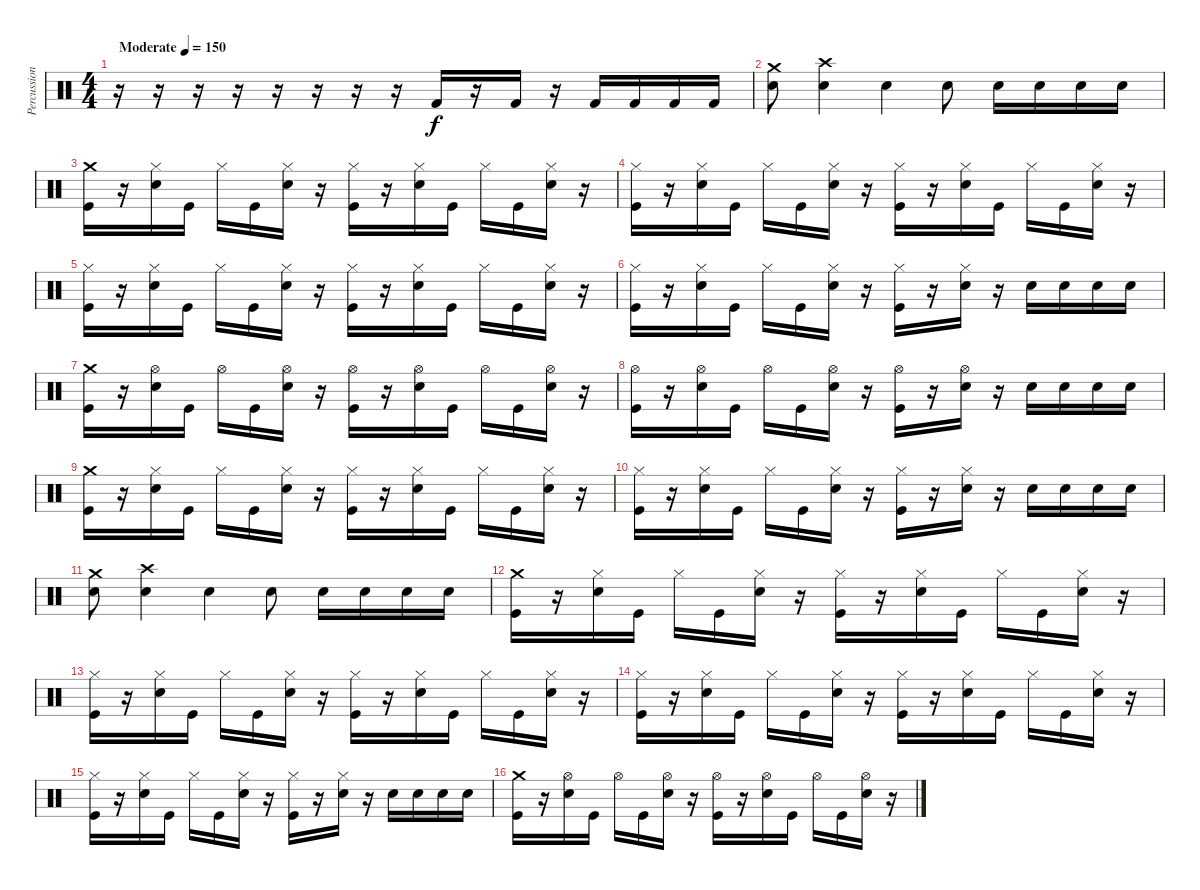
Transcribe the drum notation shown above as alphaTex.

\track ("Percussion" "Percussion") {instrument percussion}
\staff {score}
\articulation defaults
\ts (4 4)
\tempo (150 "Moderate")
\clef neutral
\ks c
r.16{dy f} r.16 r.16 r.16 r.16 r.16 r.16 r.16 "Kick (hit) 2".16 r.16 "Kick (hit) 2".16 r.16 "Kick (hit) 2".16 "Kick (hit) 2".16 "Kick (hit) 2".16 "Kick (hit) 2".16 |
("Crash medium (hit)" "Snare (hit) 2").8 ("Crash high (hit)" "Snare (hit) 2").4 "Snare (hit) 2".4 "Snare (hit) 2".8 "Snare (hit) 2".16 "Snare (hit) 2".16 "Snare (hit) 2".16 "Snare (hit) 2".16 |
("Crash medium (hit)" "Kick (hit)").16 r.16 ("Hi-Hat (closed)" "Snare (hit) 2").16 "Kick (hit)".16 "Hi-Hat (closed)".16 "Kick (hit)".16 ("Hi-Hat (closed)" "Snare (hit) 2").16 r.16 ("Hi-Hat (closed)" "Kick (hit)").16 r.16 ("Hi-Hat (closed)" "Snare (hit) 2").16 "Kick (hit)".16 "Hi-Hat (closed)".16 "Kick (hit)".16 ("Hi-Hat (closed)" "Snare (hit) 2").16 r.16 |
("Hi-Hat (closed)" "Kick (hit)").16 r.16 ("Hi-Hat (closed)" "Snare (hit) 2").16 "Kick (hit)".16 "Hi-Hat (closed)".16 "Kick (hit)".16 ("Hi-Hat (closed)" "Snare (hit) 2").16 r.16 ("Hi-Hat (closed)" "Kick (hit)").16 r.16 ("Hi-Hat (closed)" "Snare (hit) 2").16 "Kick (hit)".16 "Hi-Hat (closed)".16 "Kick (hit)".16 ("Hi-Hat (closed)" "Snare (hit) 2").16 r.16 |
("Hi-Hat (closed)" "Kick (hit)").16 r.16 ("Hi-Hat (closed)" "Snare (hit) 2").16 "Kick (hit)".16 "Hi-Hat (closed)".16 "Kick (hit)".16 ("Hi-Hat (closed)" "Snare (hit) 2").16 r.16 ("Hi-Hat (closed)" "Kick (hit)").16 r.16 ("Hi-Hat (closed)" "Snare (hit) 2").16 "Kick (hit)".16 "Hi-Hat (closed)".16 "Kick (hit)".16 ("Hi-Hat (closed)" "Snare (hit) 2").16 r.16 |
("Hi-Hat (closed)" "Kick (hit)").16 r.16 ("Hi-Hat (closed)" "Snare (hit) 2").16 "Kick (hit)".16 "Hi-Hat (closed)".16 "Kick (hit)".16 ("Hi-Hat (closed)" "Snare (hit) 2").16 r.16 ("Hi-Hat (closed)" "Kick (hit)").16 r.16 ("Hi-Hat (closed)" "Snare (hit) 2").16 r.16 "Snare (hit) 2".16 "Snare (hit) 2".16 "Snare (hit) 2".16 "Snare (hit) 2".16 |
("Crash medium (hit)" "Kick (hit)").16 r.16 ("Hi-Hat (open)" "Snare (hit) 2").16 "Kick (hit)".16 "Hi-Hat (open)".16 "Kick (hit)".16 ("Hi-Hat (open)" "Snare (hit) 2").16 r.16 ("Hi-Hat (open)" "Kick (hit)").16 r.16 ("Hi-Hat (open)" "Snare (hit) 2").16 "Kick (hit)".16 "Hi-Hat (open)".16 "Kick (hit)".16 ("Hi-Hat (open)" "Snare (hit) 2").16 r.16 |
("Hi-Hat (open)" "Kick (hit)").16 r.16 ("Hi-Hat (open)" "Snare (hit) 2").16 "Kick (hit)".16 "Hi-Hat (open)".16 "Kick (hit)".16 ("Hi-Hat (open)" "Snare (hit) 2").16 r.16 ("Hi-Hat (open)" "Kick (hit)").16 r.16 ("Hi-Hat (open)" "Snare (hit) 2").16 r.16 "Snare (hit) 2".16 "Snare (hit) 2".16 "Snare (hit) 2".16 "Snare (hit) 2".16 |
("Crash medium (hit)" "Kick (hit)").16 r.16 ("Hi-Hat (closed)" "Snare (hit) 2").16 "Kick (hit)".16 "Hi-Hat (closed)".16 "Kick (hit)".16 ("Hi-Hat (closed)" "Snare (hit) 2").16 r.16 ("Hi-Hat (closed)" "Kick (hit)").16 r.16 ("Hi-Hat (closed)" "Snare (hit) 2").16 "Kick (hit)".16 "Hi-Hat (closed)".16 "Kick (hit)".16 ("Hi-Hat (closed)" "Snare (hit) 2").16 r.16 |
("Hi-Hat (closed)" "Kick (hit)").16 r.16 ("Hi-Hat (closed)" "Snare (hit) 2").16 "Kick (hit)".16 "Hi-Hat (closed)".16 "Kick (hit)".16 ("Hi-Hat (closed)" "Snare (hit) 2").16 r.16 ("Hi-Hat (closed)" "Kick (hit)").16 r.16 ("Hi-Hat (closed)" "Snare (hit) 2").16 r.16 "Snare (hit) 2".16 "Snare (hit) 2".16 "Snare (hit) 2".16 "Snare (hit) 2".16 |
("Crash medium (hit)" "Snare (hit) 2").8 ("Crash high (hit)" "Snare (hit) 2").4 "Snare (hit) 2".4 "Snare (hit) 2".8 "Snare (hit) 2".16 "Snare (hit) 2".16 "Snare (hit) 2".16 "Snare (hit) 2".16 |
("Crash medium (hit)" "Kick (hit)").16 r.16 ("Hi-Hat (closed)" "Snare (hit) 2").16 "Kick (hit)".16 "Hi-Hat (closed)".16 "Kick (hit)".16 ("Hi-Hat (closed)" "Snare (hit) 2").16 r.16 ("Hi-Hat (closed)" "Kick (hit)").16 r.16 ("Hi-Hat (closed)" "Snare (hit) 2").16 "Kick (hit)".16 "Hi-Hat (closed)".16 "Kick (hit)".16 ("Hi-Hat (closed)" "Snare (hit) 2").16 r.16 |
("Hi-Hat (closed)" "Kick (hit)").16 r.16 ("Hi-Hat (closed)" "Snare (hit) 2").16 "Kick (hit)".16 "Hi-Hat (closed)".16 "Kick (hit)".16 ("Hi-Hat (closed)" "Snare (hit) 2").16 r.16 ("Hi-Hat (closed)" "Kick (hit)").16 r.16 ("Hi-Hat (closed)" "Snare (hit) 2").16 "Kick (hit)".16 "Hi-Hat (closed)".16 "Kick (hit)".16 ("Hi-Hat (closed)" "Snare (hit) 2").16 r.16 |
("Hi-Hat (closed)" "Kick (hit)").16 r.16 ("Hi-Hat (closed)" "Snare (hit) 2").16 "Kick (hit)".16 "Hi-Hat (closed)".16 "Kick (hit)".16 ("Hi-Hat (closed)" "Snare (hit) 2").16 r.16 ("Hi-Hat (closed)" "Kick (hit)").16 r.16 ("Hi-Hat (closed)" "Snare (hit) 2").16 "Kick (hit)".16 "Hi-Hat (closed)".16 "Kick (hit)".16 ("Hi-Hat (closed)" "Snare (hit) 2").16 r.16 |
("Hi-Hat (closed)" "Kick (hit)").16 r.16 ("Hi-Hat (closed)" "Snare (hit) 2").16 "Kick (hit)".16 "Hi-Hat (closed)".16 "Kick (hit)".16 ("Hi-Hat (closed)" "Snare (hit) 2").16 r.16 ("Hi-Hat (closed)" "Kick (hit)").16 r.16 ("Hi-Hat (closed)" "Snare (hit) 2").16 r.16 "Snare (hit) 2".16 "Snare (hit) 2".16 "Snare (hit) 2".16 "Snare (hit) 2".16 |
("Crash medium (hit)" "Kick (hit)").16 r.16 ("Hi-Hat (open)" "Snare (hit) 2").16 "Kick (hit)".16 "Hi-Hat (open)".16 "Kick (hit)".16 ("Hi-Hat (open)" "Snare (hit) 2").16 r.16 ("Hi-Hat (open)" "Kick (hit)").16 r.16 ("Hi-Hat (open)" "Snare (hit) 2").16 "Kick (hit)".16 "Hi-Hat (open)".16 "Kick (hit)".16 ("Hi-Hat (open)" "Snare (hit) 2").16 r.16
